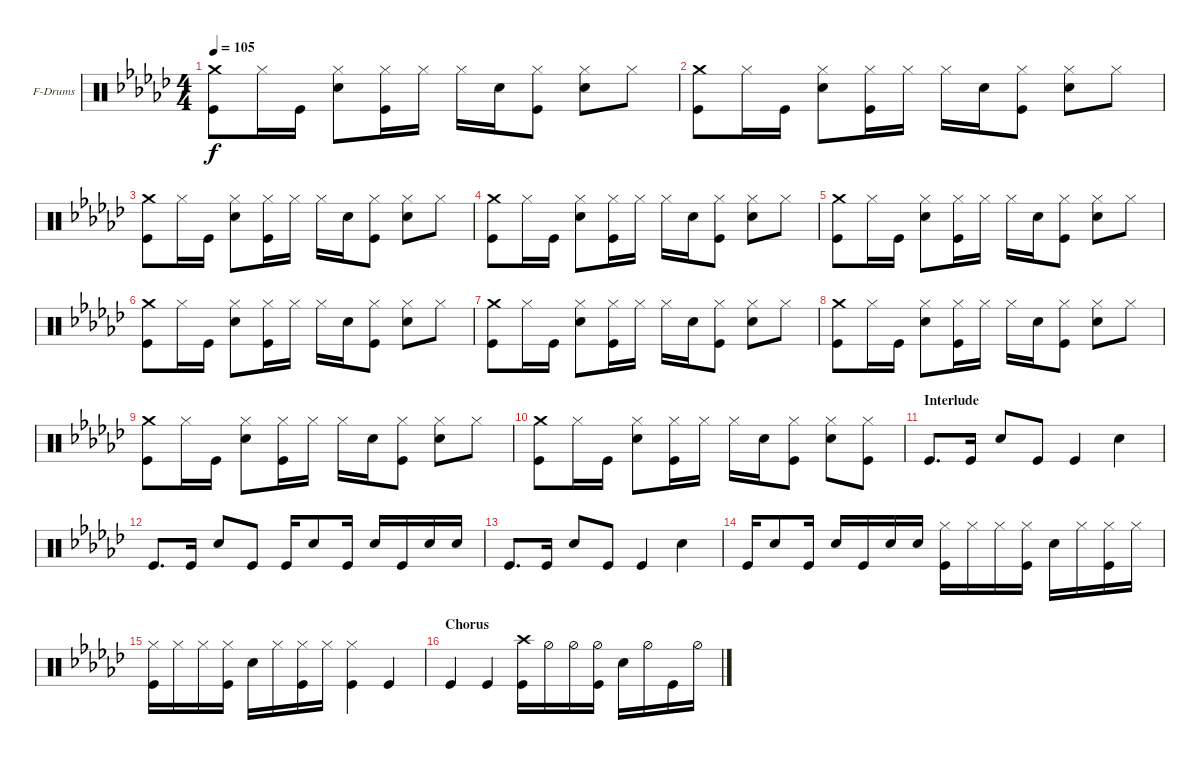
\defaultSystemsLayout 4
\bracketExtendMode groupsimilarinstruments
\firstSystemTrackNameOrientation horizontal
\otherSystemsTrackNameOrientation horizontal
\track ("Fabrizio" "F-Drums") {instrument percussion}
\staff {score}
\articulation defaults
\ts (4 4)
\tempo 105
\clef neutral
\ks ebminor
("Kick (hit)" "Crash medium (hit)").8{dy f} "Hi-Hat (closed)".16 "Kick (hit)".16 ("Snare (hit) 2" "Hi-Hat (closed)").8 ("Kick (hit)" "Hi-Hat (closed)").16 "Hi-Hat (closed)".16 "Hi-Hat (closed)".16 "Snare (hit) 2".16 ("Kick (hit)" "Hi-Hat (closed)").8 ("Snare (hit) 2" "Hi-Hat (closed)").8 "Hi-Hat (closed)".8 |
("Kick (hit)" "Crash medium (hit)").8 "Hi-Hat (closed)".16 "Kick (hit)".16 ("Snare (hit) 2" "Hi-Hat (closed)").8 ("Kick (hit)" "Hi-Hat (closed)").16 "Hi-Hat (closed)".16 "Hi-Hat (closed)".16 "Snare (hit) 2".16 ("Kick (hit)" "Hi-Hat (closed)").8 ("Snare (hit) 2" "Hi-Hat (closed)").8 "Hi-Hat (closed)".8 |
("Kick (hit)" "Crash medium (hit)").8 "Hi-Hat (closed)".16 "Kick (hit)".16 ("Snare (hit) 2" "Hi-Hat (closed)").8 ("Kick (hit)" "Hi-Hat (closed)").16 "Hi-Hat (closed)".16 "Hi-Hat (closed)".16 "Snare (hit) 2".16 ("Kick (hit)" "Hi-Hat (closed)").8 ("Snare (hit) 2" "Hi-Hat (closed)").8 "Hi-Hat (closed)".8 |
("Kick (hit)" "Crash medium (hit)").8 "Hi-Hat (closed)".16 "Kick (hit)".16 ("Snare (hit) 2" "Hi-Hat (closed)").8 ("Kick (hit)" "Hi-Hat (closed)").16 "Hi-Hat (closed)".16 "Hi-Hat (closed)".16 "Snare (hit) 2".16 ("Kick (hit)" "Hi-Hat (closed)").8 ("Snare (hit) 2" "Hi-Hat (closed)").8 "Hi-Hat (closed)".8 |
("Kick (hit)" "Crash medium (hit)").8 "Hi-Hat (closed)".16 "Kick (hit)".16 ("Snare (hit) 2" "Hi-Hat (closed)").8 ("Kick (hit)" "Hi-Hat (closed)").16 "Hi-Hat (closed)".16 "Hi-Hat (closed)".16 "Snare (hit) 2".16 ("Kick (hit)" "Hi-Hat (closed)").8 ("Snare (hit) 2" "Hi-Hat (closed)").8 "Hi-Hat (closed)".8 |
("Kick (hit)" "Crash medium (hit)").8 "Hi-Hat (closed)".16 "Kick (hit)".16 ("Snare (hit) 2" "Hi-Hat (closed)").8 ("Kick (hit)" "Hi-Hat (closed)").16 "Hi-Hat (closed)".16 "Hi-Hat (closed)".16 "Snare (hit) 2".16 ("Kick (hit)" "Hi-Hat (closed)").8 ("Snare (hit) 2" "Hi-Hat (closed)").8 "Hi-Hat (closed)".8 |
("Kick (hit)" "Crash medium (hit)").8 "Hi-Hat (closed)".16 "Kick (hit)".16 ("Snare (hit) 2" "Hi-Hat (closed)").8 ("Kick (hit)" "Hi-Hat (closed)").16 "Hi-Hat (closed)".16 "Hi-Hat (closed)".16 "Snare (hit) 2".16 ("Kick (hit)" "Hi-Hat (closed)").8 ("Snare (hit) 2" "Hi-Hat (closed)").8 "Hi-Hat (closed)".8 |
("Kick (hit)" "Crash medium (hit)").8 "Hi-Hat (closed)".16 "Kick (hit)".16 ("Snare (hit) 2" "Hi-Hat (closed)").8 ("Kick (hit)" "Hi-Hat (closed)").16 "Hi-Hat (closed)".16 "Hi-Hat (closed)".16 "Snare (hit) 2".16 ("Kick (hit)" "Hi-Hat (closed)").8 ("Snare (hit) 2" "Hi-Hat (closed)").8 "Hi-Hat (closed)".8 |
("Kick (hit)" "Crash medium (hit)").8 "Hi-Hat (closed)".16 "Kick (hit)".16 ("Snare (hit) 2" "Hi-Hat (closed)").8 ("Kick (hit)" "Hi-Hat (closed)").16 "Hi-Hat (closed)".16 "Hi-Hat (closed)".16 "Snare (hit) 2".16 ("Kick (hit)" "Hi-Hat (closed)").8 ("Snare (hit) 2" "Hi-Hat (closed)").8 "Hi-Hat (closed)".8 |
("Kick (hit)" "Crash medium (hit)").8 "Hi-Hat (closed)".16 "Kick (hit)".16 ("Snare (hit) 2" "Hi-Hat (closed)").8 ("Kick (hit)" "Hi-Hat (closed)").16 "Hi-Hat (closed)".16 "Hi-Hat (closed)".16 "Snare (hit) 2".16 ("Kick (hit)" "Hi-Hat (closed)").8 ("Snare (hit) 2" "Hi-Hat (closed)").8 ("Hi-Hat (closed)" "Kick (hit)").8 |
\section ("" "Interlude")
"Kick (hit)".8{d} "Kick (hit)".16 "Snare (hit) 2".8 "Kick (hit)".8 "Kick (hit)".4 "Snare (hit) 2".4 |
"Kick (hit)".8{d} "Kick (hit)".16 "Snare (hit) 2".8 "Kick (hit)".8 "Kick (hit)".16 "Snare (hit) 2".8 "Kick (hit)".16 "Snare (hit) 2".16 "Kick (hit)".16 "Snare (hit) 2".16 "Snare (hit) 2".16 |
"Kick (hit)".8{d} "Kick (hit)".16 "Snare (hit) 2".8 "Kick (hit)".8 "Kick (hit)".4 "Snare (hit) 2".4 |
"Kick (hit)".16 "Snare (hit) 2".8 "Kick (hit)".16 "Snare (hit) 2".16 "Kick (hit)".16 "Snare (hit) 2".16 "Snare (hit) 2".16 ("Kick (hit)" "Hi-Hat (closed)").16 "Hi-Hat (closed)".16 "Hi-Hat (closed)".16 ("Kick (hit)" "Hi-Hat (closed)").16 "Snare (hit) 2".16 "Hi-Hat (closed)".16 ("Kick (hit)" "Hi-Hat (closed)").16 "Hi-Hat (closed)".16 |
("Kick (hit)" "Hi-Hat (closed)").16 "Hi-Hat (closed)".16 "Hi-Hat (closed)".16 ("Kick (hit)" "Hi-Hat (closed)").16 "Snare (hit) 2".16 "Hi-Hat (closed)".16 ("Kick (hit)" "Hi-Hat (closed)").16 "Hi-Hat (closed)".16 ("Kick (hit)" "Hi-Hat (closed)").4 "Kick (hit)".4 |
\section ("" "Chorus")
"Kick (hit)".4 "Kick (hit)".4 ("Kick (hit)" "Crash high (hit)").16 "Hi-Hat (half)".16 "Hi-Hat (half)".16 ("Kick (hit)" "Hi-Hat (half)").16 "Snare (hit) 2".16 "Hi-Hat (half)".16 "Kick (hit)".16 "Hi-Hat (half)".16
